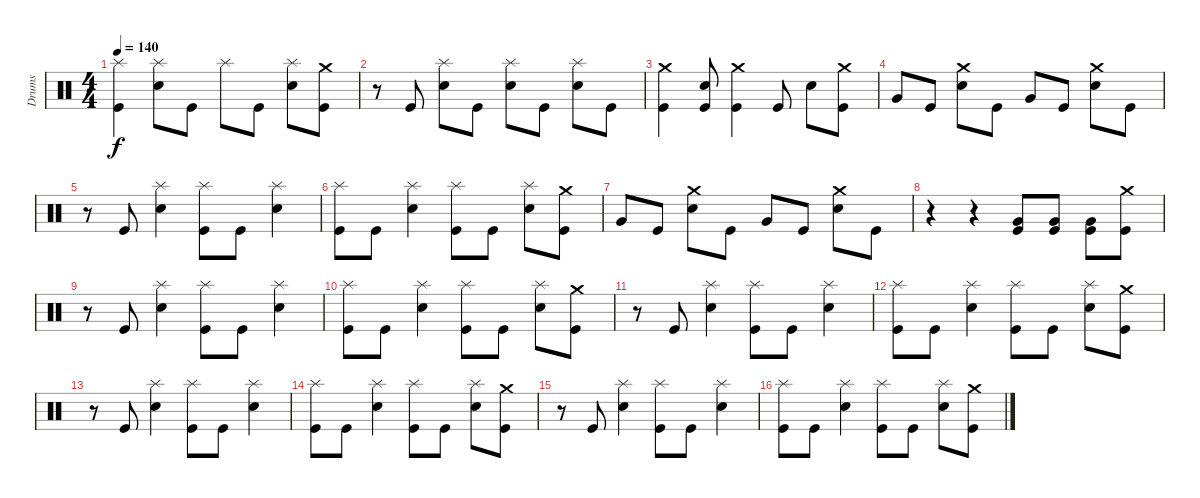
\track ("Drums" "Drums") {instrument percussion}
\staff {score}
\articulation defaults
\ts (4 4)
\tempo 140
\clef neutral
\ks c
("Splash (hit)" "Kick (hit)").4{dy f} ("Splash (hit)" "Electric Snare (hit)").8 "Kick (hit)".8 "Splash (hit)".8 "Kick (hit)".8 ("Splash (hit)" "Electric Snare (hit)").8 ("Crash medium (hit)" "Kick (hit)").8 |
r.8 "Kick (hit)".8 ("Splash (hit)" "Electric Snare (hit)").8 "Kick (hit)".8 ("Splash (hit)" "Electric Snare (hit)").8 "Kick (hit)".8 ("Splash (hit)" "Electric Snare (hit)").8 "Kick (hit)".8 |
("Crash medium (hit)" "Kick (hit)").4 ("Electric Snare (hit)" "Kick (hit)").8 ("Crash medium (hit)" "Kick (hit)").4 "Kick (hit)".8 "Electric Snare (hit)".8 ("Crash medium (hit)" "Kick (hit)").8 |
"Very Low Tom (hit)".8 "Kick (hit)".8 ("Crash medium (hit)" "Electric Snare (hit)").8 "Kick (hit)".8 "Very Low Tom (hit)".8 "Kick (hit)".8 ("Crash medium (hit)" "Electric Snare (hit)").8 "Kick (hit)".8 |
r.8 "Kick (hit)".8 ("Splash (hit)" "Electric Snare (hit)").4 ("Splash (hit)" "Kick (hit)").8 "Kick (hit)".8 ("Splash (hit)" "Electric Snare (hit)").4 |
("Splash (hit)" "Kick (hit)").8 "Kick (hit)".8 ("Splash (hit)" "Electric Snare (hit)").4 ("Splash (hit)" "Kick (hit)").8 "Kick (hit)".8 ("Splash (hit)" "Electric Snare (hit)").8 ("Crash medium (hit)" "Kick (hit)").8 |
"Very Low Tom (hit)".8 "Kick (hit)".8 ("Crash medium (hit)" "Electric Snare (hit)").8 "Kick (hit)".8 "Very Low Tom (hit)".8 "Kick (hit)".8 ("Crash medium (hit)" "Electric Snare (hit)").8 "Kick (hit)".8 |
r.4 r.4 ("Very Low Tom (hit)" "Kick (hit)").8 ("Very Low Tom (hit)" "Kick (hit)").8 ("Very Low Tom (hit)" "Kick (hit)").8 ("Crash medium (hit)" "Kick (hit)").8 |
r.8 "Kick (hit)".8 ("Splash (hit)" "Electric Snare (hit)").4 ("Splash (hit)" "Kick (hit)").8 "Kick (hit)".8 ("Splash (hit)" "Electric Snare (hit)").4 |
("Splash (hit)" "Kick (hit)").8 "Kick (hit)".8 ("Splash (hit)" "Electric Snare (hit)").4 ("Splash (hit)" "Kick (hit)").8 "Kick (hit)".8 ("Splash (hit)" "Electric Snare (hit)").8 ("Crash medium (hit)" "Kick (hit)").8 |
r.8 "Kick (hit)".8 ("Splash (hit)" "Electric Snare (hit)").4 ("Splash (hit)" "Kick (hit)").8 "Kick (hit)".8 ("Splash (hit)" "Electric Snare (hit)").4 |
("Splash (hit)" "Kick (hit)").8 "Kick (hit)".8 ("Splash (hit)" "Electric Snare (hit)").4 ("Splash (hit)" "Kick (hit)").8 "Kick (hit)".8 ("Splash (hit)" "Electric Snare (hit)").8 ("Crash medium (hit)" "Kick (hit)").8 |
r.8 "Kick (hit)".8 ("Splash (hit)" "Electric Snare (hit)").4 ("Splash (hit)" "Kick (hit)").8 "Kick (hit)".8 ("Splash (hit)" "Electric Snare (hit)").4 |
("Splash (hit)" "Kick (hit)").8 "Kick (hit)".8 ("Splash (hit)" "Electric Snare (hit)").4 ("Splash (hit)" "Kick (hit)").8 "Kick (hit)".8 ("Splash (hit)" "Electric Snare (hit)").8 ("Crash medium (hit)" "Kick (hit)").8 |
r.8 "Kick (hit)".8 ("Splash (hit)" "Electric Snare (hit)").4 ("Splash (hit)" "Kick (hit)").8 "Kick (hit)".8 ("Splash (hit)" "Electric Snare (hit)").4 |
("Splash (hit)" "Kick (hit)").8 "Kick (hit)".8 ("Splash (hit)" "Electric Snare (hit)").4 ("Splash (hit)" "Kick (hit)").8 "Kick (hit)".8 ("Splash (hit)" "Electric Snare (hit)").8 ("Crash medium (hit)" "Kick (hit)").8
